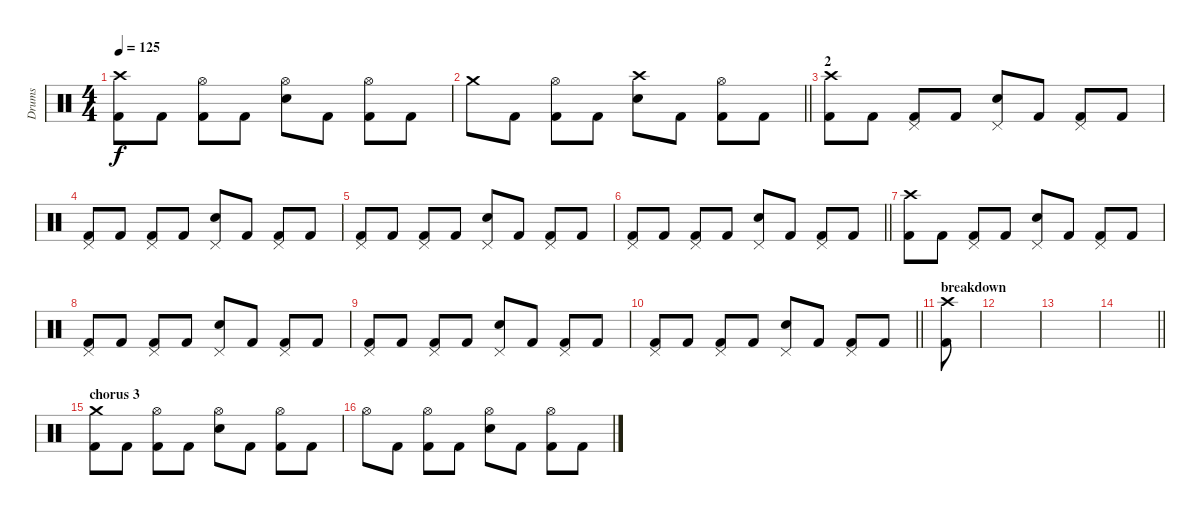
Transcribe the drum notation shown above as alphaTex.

\track ("Drums" "Drums") {instrument percussion}
\staff {score}
\articulation defaults
\ts (4 4)
\tempo 125
\clef neutral
\ks c
("Crash high (hit)" "Kick (hit) 2").8{dy f} "Kick (hit) 2".8 ("Hi-Hat (open)" "Kick (hit) 2").8 "Kick (hit) 2".8 ("Hi-Hat (open)" "Snare (hit) 2").8 "Kick (hit) 2".8 ("Hi-Hat (open)" "Kick (hit) 2").8 "Kick (hit) 2".8 |
\barLineRight lightlight "Crash medium (hit)".8 "Kick (hit) 2".8
("Hi-Hat (open)" "Kick (hit) 2").8 "Kick (hit) 2".8 ("Crash high (hit)" "Snare (hit) 2").8 "Kick (hit) 2".8 ("Hi-Hat (open)" "Kick (hit) 2").8 "Kick (hit) 2".8 |
\section ("" "2")
("Crash high (hit)" "Kick (hit) 2").8 "Kick (hit) 2".8 ("Pedal Hi-Hat (hit)" "Kick (hit) 2").8 "Kick (hit) 2".8 ("Pedal Hi-Hat (hit)" "Snare (hit) 2").8 "Kick (hit) 2".8 ("Pedal Hi-Hat (hit)" "Kick (hit) 2").8 "Kick (hit) 2".8 |
("Pedal Hi-Hat (hit)" "Kick (hit) 2").8 "Kick (hit) 2".8 ("Pedal Hi-Hat (hit)" "Kick (hit) 2").8 "Kick (hit) 2".8 ("Pedal Hi-Hat (hit)" "Snare (hit) 2").8 "Kick (hit) 2".8 ("Pedal Hi-Hat (hit)" "Kick (hit) 2").8 "Kick (hit) 2".8 |
("Pedal Hi-Hat (hit)" "Kick (hit) 2").8 "Kick (hit) 2".8 ("Pedal Hi-Hat (hit)" "Kick (hit) 2").8 "Kick (hit) 2".8 ("Pedal Hi-Hat (hit)" "Snare (hit) 2").8 "Kick (hit) 2".8 ("Pedal Hi-Hat (hit)" "Kick (hit) 2").8 "Kick (hit) 2".8 |
\barLineRight lightlight
("Pedal Hi-Hat (hit)" "Kick (hit) 2").8 "Kick (hit) 2".8 ("Pedal Hi-Hat (hit)" "Kick (hit) 2").8 "Kick (hit) 2".8 ("Pedal Hi-Hat (hit)" "Snare (hit) 2").8 "Kick (hit) 2".8 ("Pedal Hi-Hat (hit)" "Kick (hit) 2").8 "Kick (hit) 2".8 |
("Crash high (hit)" "Kick (hit) 2").8 "Kick (hit) 2".8 ("Pedal Hi-Hat (hit)" "Kick (hit) 2").8 "Kick (hit) 2".8 ("Pedal Hi-Hat (hit)" "Snare (hit) 2").8 "Kick (hit) 2".8 ("Pedal Hi-Hat (hit)" "Kick (hit) 2").8 "Kick (hit) 2".8 |
("Pedal Hi-Hat (hit)" "Kick (hit) 2").8 "Kick (hit) 2".8 ("Pedal Hi-Hat (hit)" "Kick (hit) 2").8 "Kick (hit) 2".8 ("Pedal Hi-Hat (hit)" "Snare (hit) 2").8 "Kick (hit) 2".8 ("Pedal Hi-Hat (hit)" "Kick (hit) 2").8 "Kick (hit) 2".8 |
("Pedal Hi-Hat (hit)" "Kick (hit) 2").8 "Kick (hit) 2".8 ("Pedal Hi-Hat (hit)" "Kick (hit) 2").8 "Kick (hit) 2".8 ("Pedal Hi-Hat (hit)" "Snare (hit) 2").8 "Kick (hit) 2".8 ("Pedal Hi-Hat (hit)" "Kick (hit) 2").8 "Kick (hit) 2".8 |
\barLineRight lightlight
("Pedal Hi-Hat (hit)" "Kick (hit) 2").8 "Kick (hit) 2".8 ("Pedal Hi-Hat (hit)" "Kick (hit) 2").8 "Kick (hit) 2".8 ("Pedal Hi-Hat (hit)" "Snare (hit) 2").8 "Kick (hit) 2".8 ("Pedal Hi-Hat (hit)" "Kick (hit) 2").8 "Kick (hit) 2".8 |
\section ("" "breakdown")
("Crash high (hit)" "Kick (hit) 2").8 |
|
|
\barLineRight lightlight
|
\section ("" "chorus 3")
("Crash medium (hit)" "Kick (hit) 2").8 "Kick (hit) 2".8 ("Hi-Hat (open)" "Kick (hit) 2").8 "Kick (hit) 2".8 ("Hi-Hat (open)" "Snare (hit) 2").8 "Kick (hit) 2".8 ("Hi-Hat (open)" "Kick (hit) 2").8 "Kick (hit) 2".8 |
"Hi-Hat (open)".8 "Kick (hit) 2".8 ("Hi-Hat (open)" "Kick (hit) 2").8 "Kick (hit) 2".8 ("Hi-Hat (open)" "Snare (hit) 2").8 "Kick (hit) 2".8 ("Hi-Hat (open)" "Kick (hit) 2").8 "Kick (hit) 2".8
